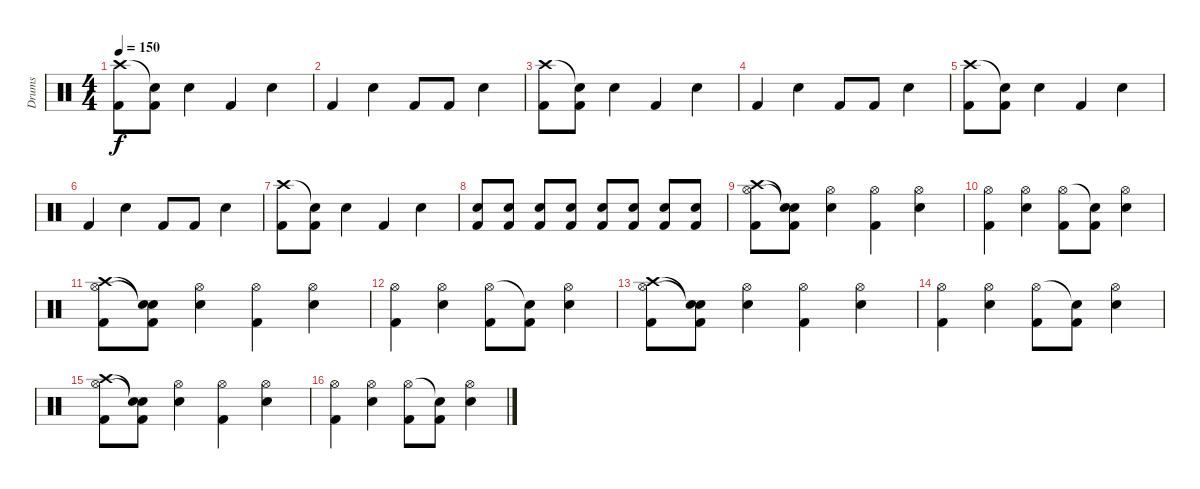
\track ("Drums" "Drums") {instrument percussion}
\staff {score}
\articulation defaults
\ts (4 4)
\tempo 150
\clef neutral
\ks c
("Crash high (hit)" "Kick (hit) 2").8{dy f} ("Snare (hit)"{t} "Kick (hit) 2").8 "Snare (hit) 2".4 "Kick (hit) 2".4 "Snare (hit) 2".4 |
"Kick (hit) 2".4 "Snare (hit) 2".4 "Kick (hit) 2".8 "Kick (hit) 2".8 "Snare (hit) 2".4 |
("Crash high (hit)" "Kick (hit) 2").8 ("Snare (hit)"{t} "Kick (hit) 2").8 "Snare (hit) 2".4 "Kick (hit) 2".4 "Snare (hit) 2".4 |
"Kick (hit) 2".4 "Snare (hit) 2".4 "Kick (hit) 2".8 "Kick (hit) 2".8 "Snare (hit) 2".4 |
("Crash high (hit)" "Kick (hit) 2").8 ("Snare (hit)"{t} "Kick (hit) 2").8 "Snare (hit) 2".4 "Kick (hit) 2".4 "Snare (hit) 2".4 |
"Kick (hit) 2".4 "Snare (hit) 2".4 "Kick (hit) 2".8 "Kick (hit) 2".8 "Snare (hit) 2".4 |
("Crash high (hit)" "Kick (hit) 2").8 ("Snare (hit)"{t} "Kick (hit) 2").8 "Snare (hit) 2".4 "Kick (hit) 2".4 "Snare (hit) 2".4 |
("Snare (hit) 2" "Kick (hit) 2").8 ("Snare (hit) 2" "Kick (hit) 2").8 ("Snare (hit) 2" "Kick (hit) 2").8 ("Snare (hit) 2" "Kick (hit) 2").8 ("Snare (hit) 2" "Kick (hit) 2").8 ("Snare (hit) 2" "Kick (hit) 2").8 ("Snare (hit) 2" "Kick (hit) 2").8 ("Snare (hit) 2" "Kick (hit) 2").8 |
("Crash high (hit)" "Hi-Hat (open)" "Kick (hit) 2").8 ("Snare (hit)"{t} "Snare (hit)"{t} "Kick (hit) 2").8 ("Snare (hit) 2" "Hi-Hat (open)").4 ("Hi-Hat (open)" "Kick (hit) 2").4 ("Snare (hit) 2" "Hi-Hat (open)").4 |
("Hi-Hat (open)" "Kick (hit) 2").4 ("Snare (hit) 2" "Hi-Hat (open)").4 ("Hi-Hat (open)" "Kick (hit) 2").8 ("Snare (hit)"{t} "Kick (hit) 2").8 ("Snare (hit) 2" "Hi-Hat (open)").4 |
("Crash high (hit)" "Hi-Hat (open)" "Kick (hit) 2").8 ("Snare (hit)"{t} "Snare (hit)"{t} "Kick (hit) 2").8 ("Snare (hit) 2" "Hi-Hat (open)").4 ("Hi-Hat (open)" "Kick (hit) 2").4 ("Snare (hit) 2" "Hi-Hat (open)").4 |
("Hi-Hat (open)" "Kick (hit) 2").4 ("Snare (hit) 2" "Hi-Hat (open)").4 ("Hi-Hat (open)" "Kick (hit) 2").8 ("Snare (hit)"{t} "Kick (hit) 2").8 ("Snare (hit) 2" "Hi-Hat (open)").4 |
("Crash high (hit)" "Hi-Hat (open)" "Kick (hit) 2").8 ("Snare (hit)"{t} "Snare (hit)"{t} "Kick (hit) 2").8 ("Snare (hit) 2" "Hi-Hat (open)").4 ("Hi-Hat (open)" "Kick (hit) 2").4 ("Snare (hit) 2" "Hi-Hat (open)").4 |
("Hi-Hat (open)" "Kick (hit) 2").4 ("Snare (hit) 2" "Hi-Hat (open)").4 ("Hi-Hat (open)" "Kick (hit) 2").8 ("Snare (hit)"{t} "Kick (hit) 2").8 ("Snare (hit) 2" "Hi-Hat (open)").4 |
("Crash high (hit)" "Hi-Hat (open)" "Kick (hit) 2").8 ("Snare (hit)"{t} "Snare (hit)"{t} "Kick (hit) 2").8 ("Snare (hit) 2" "Hi-Hat (open)").4 ("Hi-Hat (open)" "Kick (hit) 2").4 ("Snare (hit) 2" "Hi-Hat (open)").4 |
("Hi-Hat (open)" "Kick (hit) 2").4 ("Snare (hit) 2" "Hi-Hat (open)").4 ("Hi-Hat (open)" "Kick (hit) 2").8 ("Snare (hit)"{t} "Kick (hit) 2").8 ("Snare (hit) 2" "Hi-Hat (open)").4
